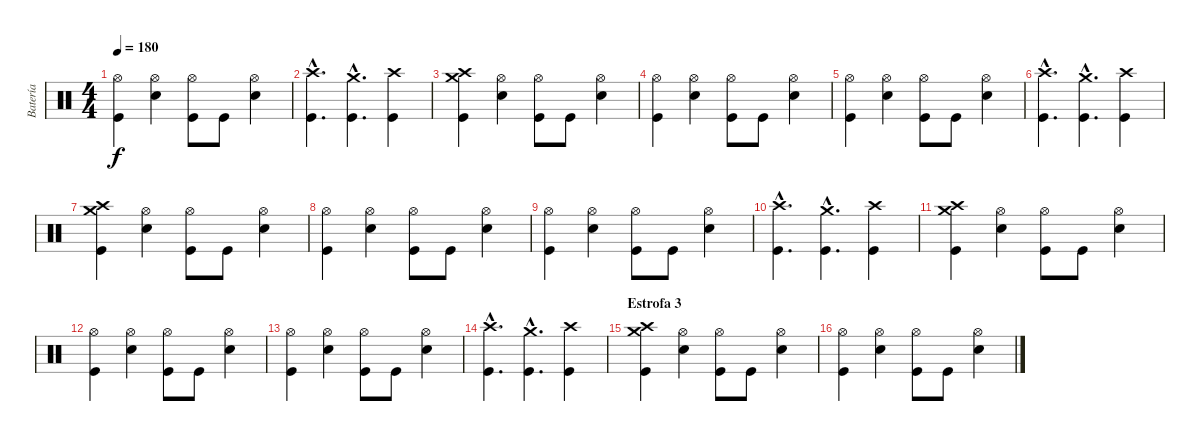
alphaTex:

\track ("Batería" "Batería") {instrument percussion}
\staff {score}
\articulation defaults
\ts (4 4)
\tempo 180
\clef neutral
\ks c
("Hi-Hat (open)" "Kick (hit)").4{dy f} ("Hi-Hat (open)" "Snare (hit) 2").4 ("Hi-Hat (open)" "Kick (hit)").8 "Kick (hit)".8 ("Hi-Hat (open)" "Snare (hit) 2").4 |
("Crash high (hit)"{hac} "Kick (hit)"{hac}).4{d} ("Crash medium (hit)"{hac} "Kick (hit)"{hac}).4{d} ("Crash high (hit)" "Kick (hit)").4 |
("Crash medium (hit)" "Crash high (hit)" "Kick (hit)").4 ("Hi-Hat (open)" "Snare (hit) 2").4 ("Hi-Hat (open)" "Kick (hit)").8 "Kick (hit)".8 ("Hi-Hat (open)" "Snare (hit) 2").4 |
("Hi-Hat (open)" "Kick (hit)").4 ("Hi-Hat (open)" "Snare (hit) 2").4 ("Hi-Hat (open)" "Kick (hit)").8 "Kick (hit)".8 ("Hi-Hat (open)" "Snare (hit) 2").4 |
("Hi-Hat (open)" "Kick (hit)").4 ("Hi-Hat (open)" "Snare (hit) 2").4 ("Hi-Hat (open)" "Kick (hit)").8 "Kick (hit)".8 ("Hi-Hat (open)" "Snare (hit) 2").4 |
("Crash high (hit)"{hac} "Kick (hit)"{hac}).4{d} ("Crash medium (hit)"{hac} "Kick (hit)"{hac}).4{d} ("Crash high (hit)" "Kick (hit)").4 |
("Crash medium (hit)" "Crash high (hit)" "Kick (hit)").4 ("Hi-Hat (open)" "Snare (hit) 2").4 ("Hi-Hat (open)" "Kick (hit)").8 "Kick (hit)".8 ("Hi-Hat (open)" "Snare (hit) 2").4 |
("Hi-Hat (open)" "Kick (hit)").4 ("Hi-Hat (open)" "Snare (hit) 2").4 ("Hi-Hat (open)" "Kick (hit)").8 "Kick (hit)".8 ("Hi-Hat (open)" "Snare (hit) 2").4 |
("Hi-Hat (open)" "Kick (hit)").4 ("Hi-Hat (open)" "Snare (hit) 2").4 ("Hi-Hat (open)" "Kick (hit)").8 "Kick (hit)".8 ("Hi-Hat (open)" "Snare (hit) 2").4 |
("Crash high (hit)"{hac} "Kick (hit)"{hac}).4{d} ("Crash medium (hit)"{hac} "Kick (hit)"{hac}).4{d} ("Crash high (hit)" "Kick (hit)").4 |
("Crash medium (hit)" "Crash high (hit)" "Kick (hit)").4 ("Hi-Hat (open)" "Snare (hit) 2").4 ("Hi-Hat (open)" "Kick (hit)").8 "Kick (hit)".8 ("Hi-Hat (open)" "Snare (hit) 2").4 |
("Hi-Hat (open)" "Kick (hit)").4 ("Hi-Hat (open)" "Snare (hit) 2").4 ("Hi-Hat (open)" "Kick (hit)").8 "Kick (hit)".8 ("Hi-Hat (open)" "Snare (hit) 2").4 |
("Hi-Hat (open)" "Kick (hit)").4 ("Hi-Hat (open)" "Snare (hit) 2").4 ("Hi-Hat (open)" "Kick (hit)").8 "Kick (hit)".8 ("Hi-Hat (open)" "Snare (hit) 2").4 |
("Crash high (hit)"{hac} "Kick (hit)"{hac}).4{d} ("Crash medium (hit)"{hac} "Kick (hit)"{hac}).4{d} ("Crash high (hit)" "Kick (hit)").4 |
\section ("" "Estrofa 3")
("Crash medium (hit)" "Crash high (hit)" "Kick (hit)").4 ("Hi-Hat (open)" "Snare (hit) 2").4 ("Hi-Hat (open)" "Kick (hit)").8 "Kick (hit)".8 ("Hi-Hat (open)" "Snare (hit) 2").4 |
("Hi-Hat (open)" "Kick (hit)").4 ("Hi-Hat (open)" "Snare (hit) 2").4 ("Hi-Hat (open)" "Kick (hit)").8 "Kick (hit)".8 ("Hi-Hat (open)" "Snare (hit) 2").4
